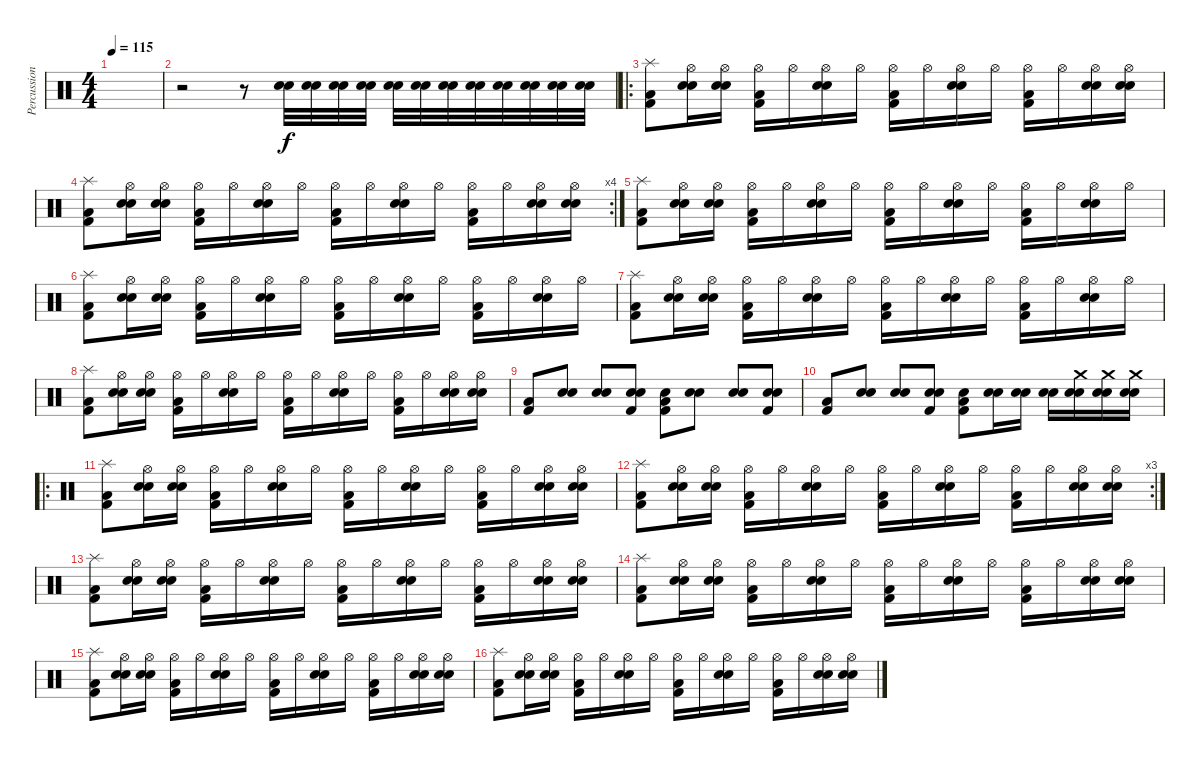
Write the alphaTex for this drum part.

\track ("Percussions" "Percussion") {instrument percussion}
\staff {score}
\articulation defaults
\ts (4 4)
\tempo 115
\clef neutral
\ks c
|
r.2 r.8 ("Electric Snare (hit)" "Snare (hit) 2").32 ("Electric Snare (hit)" "Snare (hit) 2").32 ("Electric Snare (hit)" "Snare (hit) 2").32 ("Electric Snare (hit)" "Snare (hit) 2").32 ("Electric Snare (hit)" "Snare (hit) 2").32 ("Electric Snare (hit)" "Snare (hit) 2").32 ("Electric Snare (hit)" "Snare (hit) 2").32 ("Electric Snare (hit)" "Snare (hit) 2").32 ("Electric Snare (hit)" "Snare (hit) 2").32 ("Electric Snare (hit)" "Snare (hit) 2").32 ("Electric Snare (hit)" "Snare (hit) 2").32 ("Electric Snare (hit)" "Snare (hit) 2").32 |
\ro
("Kick (hit) 2" "Low Floor Tom (hit)" "Splash (hit)").8 ("Hi-Hat (open)" "Snare (hit) 2" "Electric Snare (hit)").16 ("Hi-Hat (open)" "Snare (hit) 2" "Electric Snare (hit)").16 ("Hi-Hat (open)" "Low Floor Tom (hit)" "Kick (hit) 2").16 "Hi-Hat (open)".16 ("Hi-Hat (open)" "Electric Snare (hit)" "Snare (hit) 2").16 "Hi-Hat (open)".16 ("Hi-Hat (open)" "Low Floor Tom (hit)" "Kick (hit) 2").16 "Hi-Hat (open)".16 ("Hi-Hat (open)" "Snare (hit) 2" "Electric Snare (hit)").16 "Hi-Hat (open)".16 ("Hi-Hat (open)" "Low Floor Tom (hit)" "Kick (hit) 2").16 "Hi-Hat (open)".16 ("Hi-Hat (open)" "Snare (hit) 2" "Electric Snare (hit)").16 ("Hi-Hat (open)" "Snare (hit) 2" "Electric Snare (hit)").16 |
\rc 4
("Kick (hit) 2" "Low Floor Tom (hit)" "Splash (hit)").8 ("Hi-Hat (open)" "Snare (hit) 2" "Electric Snare (hit)").16 ("Hi-Hat (open)" "Snare (hit) 2" "Electric Snare (hit)").16 ("Hi-Hat (open)" "Low Floor Tom (hit)" "Kick (hit) 2").16 "Hi-Hat (open)".16 ("Hi-Hat (open)" "Electric Snare (hit)" "Snare (hit) 2").16 "Hi-Hat (open)".16 ("Hi-Hat (open)" "Low Floor Tom (hit)" "Kick (hit) 2").16 "Hi-Hat (open)".16 ("Hi-Hat (open)" "Snare (hit) 2" "Electric Snare (hit)").16 "Hi-Hat (open)".16 ("Hi-Hat (open)" "Low Floor Tom (hit)" "Kick (hit) 2").16 "Hi-Hat (open)".16 ("Hi-Hat (open)" "Snare (hit) 2" "Electric Snare (hit)").16 ("Hi-Hat (open)" "Snare (hit) 2" "Electric Snare (hit)").16 |
("Kick (hit) 2" "Low Floor Tom (hit)" "Splash (hit)").8 ("Hi-Hat (open)" "Snare (hit) 2" "Electric Snare (hit)").16 ("Hi-Hat (open)" "Snare (hit) 2" "Electric Snare (hit)").16 ("Hi-Hat (open)" "Low Floor Tom (hit)" "Kick (hit) 2").16 "Hi-Hat (open)".16 ("Hi-Hat (open)" "Electric Snare (hit)" "Snare (hit) 2").16 "Hi-Hat (open)".16 ("Hi-Hat (open)" "Low Floor Tom (hit)" "Kick (hit) 2").16 "Hi-Hat (open)".16 ("Hi-Hat (open)" "Snare (hit) 2" "Electric Snare (hit)").16 "Hi-Hat (open)".16 ("Hi-Hat (open)" "Low Floor Tom (hit)" "Kick (hit) 2").16 "Hi-Hat (open)".16 ("Hi-Hat (open)" "Snare (hit) 2" "Electric Snare (hit)").16 "Hi-Hat (open)".16 |
("Kick (hit) 2" "Low Floor Tom (hit)" "Splash (hit)").8 ("Hi-Hat (open)" "Snare (hit) 2" "Electric Snare (hit)").16 ("Hi-Hat (open)" "Snare (hit) 2" "Electric Snare (hit)").16 ("Hi-Hat (open)" "Low Floor Tom (hit)" "Kick (hit) 2").16 "Hi-Hat (open)".16 ("Hi-Hat (open)" "Electric Snare (hit)" "Snare (hit) 2").16 "Hi-Hat (open)".16 ("Hi-Hat (open)" "Low Floor Tom (hit)" "Kick (hit) 2").16 "Hi-Hat (open)".16 ("Hi-Hat (open)" "Snare (hit) 2" "Electric Snare (hit)").16 "Hi-Hat (open)".16 ("Hi-Hat (open)" "Low Floor Tom (hit)" "Kick (hit) 2").16 "Hi-Hat (open)".16 ("Hi-Hat (open)" "Snare (hit) 2" "Electric Snare (hit)").16 "Hi-Hat (open)".16 |
("Kick (hit) 2" "Low Floor Tom (hit)" "Splash (hit)").8 ("Hi-Hat (open)" "Snare (hit) 2" "Electric Snare (hit)").16 ("Hi-Hat (open)" "Snare (hit) 2" "Electric Snare (hit)").16 ("Hi-Hat (open)" "Low Floor Tom (hit)" "Kick (hit) 2").16 "Hi-Hat (open)".16 ("Hi-Hat (open)" "Electric Snare (hit)" "Snare (hit) 2").16 "Hi-Hat (open)".16 ("Hi-Hat (open)" "Low Floor Tom (hit)" "Kick (hit) 2").16 "Hi-Hat (open)".16 ("Hi-Hat (open)" "Snare (hit) 2" "Electric Snare (hit)").16 "Hi-Hat (open)".16 ("Hi-Hat (open)" "Low Floor Tom (hit)" "Kick (hit) 2").16 "Hi-Hat (open)".16 ("Hi-Hat (open)" "Snare (hit) 2" "Electric Snare (hit)").16 "Hi-Hat (open)".16 |
("Kick (hit) 2" "Low Floor Tom (hit)" "Splash (hit)").8 ("Hi-Hat (open)" "Snare (hit) 2" "Electric Snare (hit)").16 ("Hi-Hat (open)" "Snare (hit) 2" "Electric Snare (hit)").16 ("Hi-Hat (open)" "Low Floor Tom (hit)" "Kick (hit) 2").16 "Hi-Hat (open)".16 ("Hi-Hat (open)" "Electric Snare (hit)" "Snare (hit) 2").16 "Hi-Hat (open)".16 ("Hi-Hat (open)" "Low Floor Tom (hit)" "Kick (hit) 2").16 "Hi-Hat (open)".16 ("Hi-Hat (open)" "Snare (hit) 2" "Electric Snare (hit)").16 "Hi-Hat (open)".16 ("Hi-Hat (open)" "Low Floor Tom (hit)" "Kick (hit) 2").16 "Hi-Hat (open)".16 ("Hi-Hat (open)" "Snare (hit) 2" "Electric Snare (hit)").16 ("Hi-Hat (open)" "Snare (hit) 2" "Electric Snare (hit)").16 |
("Low Floor Tom (hit)" "Kick (hit) 2").8 ("Snare (hit) 2" "Electric Snare (hit)").8 ("Snare (hit) 2" "Electric Snare (hit)").8 ("Snare (hit) 2" "Electric Snare (hit)" "Kick (hit) 2").8 ("Snare (hit) 2" "Kick (hit) 2" "Low Floor Tom (hit)").8 ("Snare (hit) 2" "Electric Snare (hit)").8 ("Snare (hit) 2" "Electric Snare (hit)").8 ("Snare (hit) 2" "Electric Snare (hit)" "Kick (hit) 2").8 |
("Low Floor Tom (hit)" "Kick (hit) 2").8 ("Snare (hit) 2" "Electric Snare (hit)").8 ("Snare (hit) 2" "Electric Snare (hit)").8 ("Snare (hit) 2" "Electric Snare (hit)" "Kick (hit) 2").8 ("Snare (hit) 2" "Kick (hit) 2" "Low Floor Tom (hit)").8 ("Snare (hit) 2" "Electric Snare (hit)").16 ("Snare (hit) 2" "Electric Snare (hit)").16 ("Snare (hit) 2" "Electric Snare (hit)").16 ("Crash medium (hit)" "Snare (hit) 2" "Electric Snare (hit)").16 ("Crash medium (hit)" "Snare (hit) 2" "Electric Snare (hit)").16 ("Crash medium (hit)" "Snare (hit) 2" "Electric Snare (hit)").16 |
\ro
("Kick (hit) 2" "Low Floor Tom (hit)" "Splash (hit)").8 ("Hi-Hat (open)" "Snare (hit) 2" "Electric Snare (hit)").16 ("Hi-Hat (open)" "Snare (hit) 2" "Electric Snare (hit)").16 ("Hi-Hat (open)" "Low Floor Tom (hit)" "Kick (hit) 2").16 "Hi-Hat (open)".16 ("Hi-Hat (open)" "Electric Snare (hit)" "Snare (hit) 2").16 "Hi-Hat (open)".16 ("Hi-Hat (open)" "Low Floor Tom (hit)" "Kick (hit) 2").16 "Hi-Hat (open)".16 ("Hi-Hat (open)" "Snare (hit) 2" "Electric Snare (hit)").16 "Hi-Hat (open)".16 ("Hi-Hat (open)" "Low Floor Tom (hit)" "Kick (hit) 2").16 "Hi-Hat (open)".16 ("Hi-Hat (open)" "Snare (hit) 2" "Electric Snare (hit)").16 ("Hi-Hat (open)" "Snare (hit) 2" "Electric Snare (hit)").16 |
\rc 3
("Kick (hit) 2" "Low Floor Tom (hit)" "Splash (hit)").8 ("Hi-Hat (open)" "Snare (hit) 2" "Electric Snare (hit)").16 ("Hi-Hat (open)" "Snare (hit) 2" "Electric Snare (hit)").16 ("Hi-Hat (open)" "Low Floor Tom (hit)" "Kick (hit) 2").16 "Hi-Hat (open)".16 ("Hi-Hat (open)" "Electric Snare (hit)" "Snare (hit) 2").16 "Hi-Hat (open)".16 ("Hi-Hat (open)" "Low Floor Tom (hit)" "Kick (hit) 2").16 "Hi-Hat (open)".16 ("Hi-Hat (open)" "Snare (hit) 2" "Electric Snare (hit)").16 "Hi-Hat (open)".16 ("Hi-Hat (open)" "Low Floor Tom (hit)" "Kick (hit) 2").16 "Hi-Hat (open)".16 ("Hi-Hat (open)" "Snare (hit) 2" "Electric Snare (hit)").16 ("Hi-Hat (open)" "Snare (hit) 2" "Electric Snare (hit)").16 |
("Kick (hit) 2" "Low Floor Tom (hit)" "Splash (hit)").8 ("Hi-Hat (open)" "Snare (hit) 2" "Electric Snare (hit)").16 ("Hi-Hat (open)" "Snare (hit) 2" "Electric Snare (hit)").16 ("Hi-Hat (open)" "Low Floor Tom (hit)" "Kick (hit) 2").16 "Hi-Hat (open)".16 ("Hi-Hat (open)" "Electric Snare (hit)" "Snare (hit) 2").16 "Hi-Hat (open)".16 ("Hi-Hat (open)" "Low Floor Tom (hit)" "Kick (hit) 2").16 "Hi-Hat (open)".16 ("Hi-Hat (open)" "Snare (hit) 2" "Electric Snare (hit)").16 "Hi-Hat (open)".16 ("Hi-Hat (open)" "Low Floor Tom (hit)" "Kick (hit) 2").16 "Hi-Hat (open)".16 ("Hi-Hat (open)" "Snare (hit) 2" "Electric Snare (hit)").16 ("Hi-Hat (open)" "Snare (hit) 2" "Electric Snare (hit)").16 |
("Kick (hit) 2" "Low Floor Tom (hit)" "Splash (hit)").8 ("Hi-Hat (open)" "Snare (hit) 2" "Electric Snare (hit)").16 ("Hi-Hat (open)" "Snare (hit) 2" "Electric Snare (hit)").16 ("Hi-Hat (open)" "Low Floor Tom (hit)" "Kick (hit) 2").16 "Hi-Hat (open)".16 ("Hi-Hat (open)" "Electric Snare (hit)" "Snare (hit) 2").16 "Hi-Hat (open)".16 ("Hi-Hat (open)" "Low Floor Tom (hit)" "Kick (hit) 2").16 "Hi-Hat (open)".16 ("Hi-Hat (open)" "Snare (hit) 2" "Electric Snare (hit)").16 "Hi-Hat (open)".16 ("Hi-Hat (open)" "Low Floor Tom (hit)" "Kick (hit) 2").16 "Hi-Hat (open)".16 ("Hi-Hat (open)" "Snare (hit) 2" "Electric Snare (hit)").16 ("Hi-Hat (open)" "Snare (hit) 2" "Electric Snare (hit)").16 |
("Kick (hit) 2" "Low Floor Tom (hit)" "Splash (hit)").8 ("Hi-Hat (open)" "Snare (hit) 2" "Electric Snare (hit)").16 ("Hi-Hat (open)" "Snare (hit) 2" "Electric Snare (hit)").16 ("Hi-Hat (open)" "Low Floor Tom (hit)" "Kick (hit) 2").16 "Hi-Hat (open)".16 ("Hi-Hat (open)" "Electric Snare (hit)" "Snare (hit) 2").16 "Hi-Hat (open)".16 ("Hi-Hat (open)" "Low Floor Tom (hit)" "Kick (hit) 2").16 "Hi-Hat (open)".16 ("Hi-Hat (open)" "Snare (hit) 2" "Electric Snare (hit)").16 "Hi-Hat (open)".16 ("Hi-Hat (open)" "Low Floor Tom (hit)" "Kick (hit) 2").16 "Hi-Hat (open)".16 ("Hi-Hat (open)" "Snare (hit) 2" "Electric Snare (hit)").16 ("Hi-Hat (open)" "Snare (hit) 2" "Electric Snare (hit)").16 |
("Kick (hit) 2" "Low Floor Tom (hit)" "Splash (hit)").8 ("Hi-Hat (open)" "Snare (hit) 2" "Electric Snare (hit)").16 ("Hi-Hat (open)" "Snare (hit) 2" "Electric Snare (hit)").16 ("Hi-Hat (open)" "Low Floor Tom (hit)" "Kick (hit) 2").16 "Hi-Hat (open)".16 ("Hi-Hat (open)" "Electric Snare (hit)" "Snare (hit) 2").16 "Hi-Hat (open)".16 ("Hi-Hat (open)" "Low Floor Tom (hit)" "Kick (hit) 2").16 "Hi-Hat (open)".16 ("Hi-Hat (open)" "Snare (hit) 2" "Electric Snare (hit)").16 "Hi-Hat (open)".16 ("Hi-Hat (open)" "Low Floor Tom (hit)" "Kick (hit) 2").16 "Hi-Hat (open)".16 ("Hi-Hat (open)" "Snare (hit) 2" "Electric Snare (hit)").16 ("Hi-Hat (open)" "Snare (hit) 2" "Electric Snare (hit)").16
